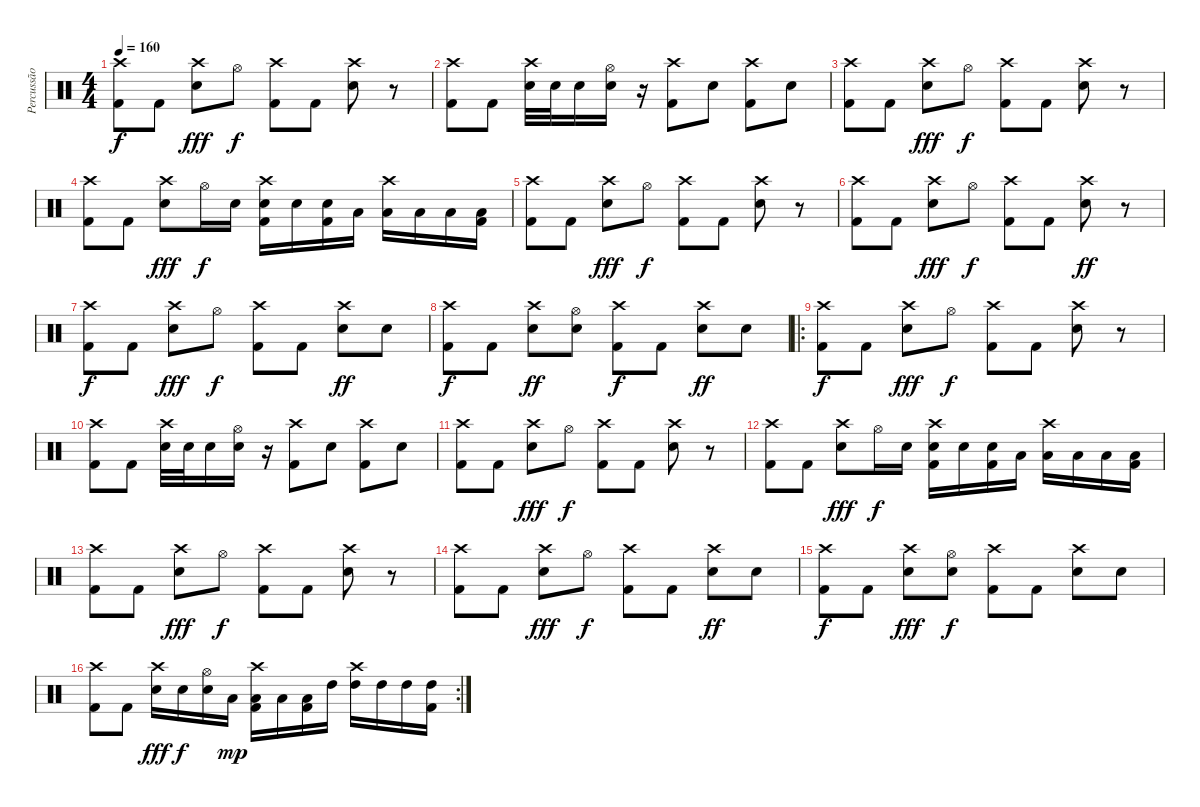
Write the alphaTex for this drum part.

\track ("Percussão" "Percussão") {instrument percussion}
\staff {score}
\articulation defaults
\ts (4 4)
\tempo 160
\clef neutral
\ks c
("Crash high (hit)" "Kick (hit) 2").8{dy f} "Kick (hit) 2".8 ("Crash high (hit)" "Electric Snare (hit)").8{dy fff} "Hi-Hat (open)".8{dy f} ("Crash high (hit)" "Kick (hit) 2").8 "Kick (hit) 2".8 ("Crash high (hit)" "Electric Snare (hit)").8 r.8 |
("Crash high (hit)" "Kick (hit) 2").8 "Kick (hit) 2".8 ("Crash high (hit)" "Electric Snare (hit)").32 "Electric Snare (hit)".32 "Electric Snare (hit)".16 ("Hi-Hat (open)" "Electric Snare (hit)").16 r.16 ("Crash high (hit)" "Kick (hit) 2").8 "Electric Snare (hit)".8 ("Crash high (hit)" "Kick (hit) 2").8 "Electric Snare (hit)".8 |
("Crash high (hit)" "Kick (hit) 2").8 "Kick (hit) 2".8 ("Crash high (hit)" "Electric Snare (hit)").8{dy fff} "Hi-Hat (open)".8{dy f} ("Crash high (hit)" "Kick (hit) 2").8 "Kick (hit) 2".8 ("Crash high (hit)" "Electric Snare (hit)").8 r.8 |
("Crash high (hit)" "Kick (hit) 2").8 "Kick (hit) 2".8 ("Crash high (hit)" "Electric Snare (hit)").8{dy fff} "Hi-Hat (open)".16{dy f} "Electric Snare (hit)".16 ("Crash high (hit)" "Electric Snare (hit)" "Kick (hit) 2").16 "Electric Snare (hit)".16 ("Electric Snare (hit)" "Kick (hit) 2").16 "Low Tom (hit)".16 ("Crash high (hit)" "Low Tom (hit)").16 "Low Tom (hit)".16 "Low Tom (hit)".16 ("Low Tom (hit)" "Kick (hit) 2").16 |
("Crash high (hit)" "Kick (hit) 2").8 "Kick (hit) 2".8 ("Crash high (hit)" "Electric Snare (hit)").8{dy fff} "Hi-Hat (open)".8{dy f} ("Crash high (hit)" "Kick (hit) 2").8 "Kick (hit) 2".8 ("Crash high (hit)" "Electric Snare (hit)").8 r.8 |
("Crash high (hit)" "Kick (hit) 2").8 "Kick (hit) 2".8 ("Crash high (hit)" "Electric Snare (hit)").8{dy fff} "Hi-Hat (open)".8{dy f} ("Crash high (hit)" "Kick (hit) 2").8 "Kick (hit) 2".8 ("Crash high (hit)" "Electric Snare (hit)").8{dy ff} r.8 |
("Crash high (hit)" "Kick (hit) 2").8{dy f} "Kick (hit) 2".8 ("Crash high (hit)" "Electric Snare (hit)").8{dy fff} "Hi-Hat (open)".8{dy f} ("Crash high (hit)" "Kick (hit) 2").8 "Kick (hit) 2".8 ("Crash high (hit)" "Electric Snare (hit)").8{dy ff} "Electric Snare (hit)".8 |
("Crash high (hit)" "Kick (hit) 2").8{dy f} "Kick (hit) 2".8 ("Crash high (hit)" "Electric Snare (hit)").8{dy ff} ("Hi-Hat (open)" "Electric Snare (hit)").8 ("Crash high (hit)" "Kick (hit) 2").8{dy f} "Kick (hit) 2".8 ("Crash high (hit)" "Electric Snare (hit)").8{dy ff} "Electric Snare (hit)".8 |
\ro
("Crash high (hit)" "Kick (hit) 2").8{dy f} "Kick (hit) 2".8 ("Crash high (hit)" "Electric Snare (hit)").8{dy fff} "Hi-Hat (open)".8{dy f} ("Crash high (hit)" "Kick (hit) 2").8 "Kick (hit) 2".8 ("Crash high (hit)" "Electric Snare (hit)").8 r.8 |
("Crash high (hit)" "Kick (hit) 2").8 "Kick (hit) 2".8 ("Crash high (hit)" "Electric Snare (hit)").32 "Electric Snare (hit)".32 "Electric Snare (hit)".16 ("Hi-Hat (open)" "Electric Snare (hit)").16 r.16 ("Crash high (hit)" "Kick (hit) 2").8 "Electric Snare (hit)".8 ("Crash high (hit)" "Kick (hit) 2").8 "Electric Snare (hit)".8 |
("Crash high (hit)" "Kick (hit) 2").8 "Kick (hit) 2".8 ("Crash high (hit)" "Electric Snare (hit)").8{dy fff} "Hi-Hat (open)".8{dy f} ("Crash high (hit)" "Kick (hit) 2").8 "Kick (hit) 2".8 ("Crash high (hit)" "Electric Snare (hit)").8 r.8 |
("Crash high (hit)" "Kick (hit) 2").8 "Kick (hit) 2".8 ("Crash high (hit)" "Electric Snare (hit)").8{dy fff} "Hi-Hat (open)".16{dy f} "Electric Snare (hit)".16 ("Crash high (hit)" "Electric Snare (hit)" "Kick (hit) 2").16 "Electric Snare (hit)".16 ("Electric Snare (hit)" "Kick (hit) 2").16 "Low Tom (hit)".16 ("Crash high (hit)" "Low Tom (hit)").16 "Low Tom (hit)".16 "Low Tom (hit)".16 ("Low Tom (hit)" "Kick (hit) 2").16 |
("Crash high (hit)" "Kick (hit) 2").8 "Kick (hit) 2".8 ("Crash high (hit)" "Electric Snare (hit)").8{dy fff} "Hi-Hat (open)".8{dy f} ("Crash high (hit)" "Kick (hit) 2").8 "Kick (hit) 2".8 ("Crash high (hit)" "Electric Snare (hit)").8 r.8 |
("Crash high (hit)" "Kick (hit) 2").8 "Kick (hit) 2".8 ("Crash high (hit)" "Electric Snare (hit)").8{dy fff} "Hi-Hat (open)".8{dy f} ("Crash high (hit)" "Kick (hit) 2").8 "Kick (hit) 2".8 ("Crash high (hit)" "Electric Snare (hit)").8{dy ff} "Electric Snare (hit)".8 |
("Crash high (hit)" "Kick (hit) 2").8{dy f} "Kick (hit) 2".8 ("Crash high (hit)" "Electric Snare (hit)").8{dy fff} ("Hi-Hat (open)" "Electric Snare (hit)").8{dy f} ("Crash high (hit)" "Kick (hit) 2").8 "Kick (hit) 2".8 ("Crash high (hit)" "Electric Snare (hit)").8 "Electric Snare (hit)".8 |
\rc 2
("Crash high (hit)" "Kick (hit) 2").8 "Kick (hit) 2".8 ("Crash high (hit)" "Electric Snare (hit)").16{dy fff} "Electric Snare (hit)".16{dy f} ("Hi-Hat (open)" "Electric Snare (hit)").16 "Low Floor Tom (hit)".16{dy mp} ("Crash high (hit)" "Low Floor Tom (hit)" "Kick (hit) 2").16 "Low Floor Tom (hit)".16 ("Low Floor Tom (hit)" "Kick (hit) 2").16 "High Tom (hit)".16 ("Crash high (hit)" "High Tom (hit)").16 "High Tom (hit)".16 "High Tom (hit)".16 ("High Tom (hit)" "Kick (hit) 2").16
